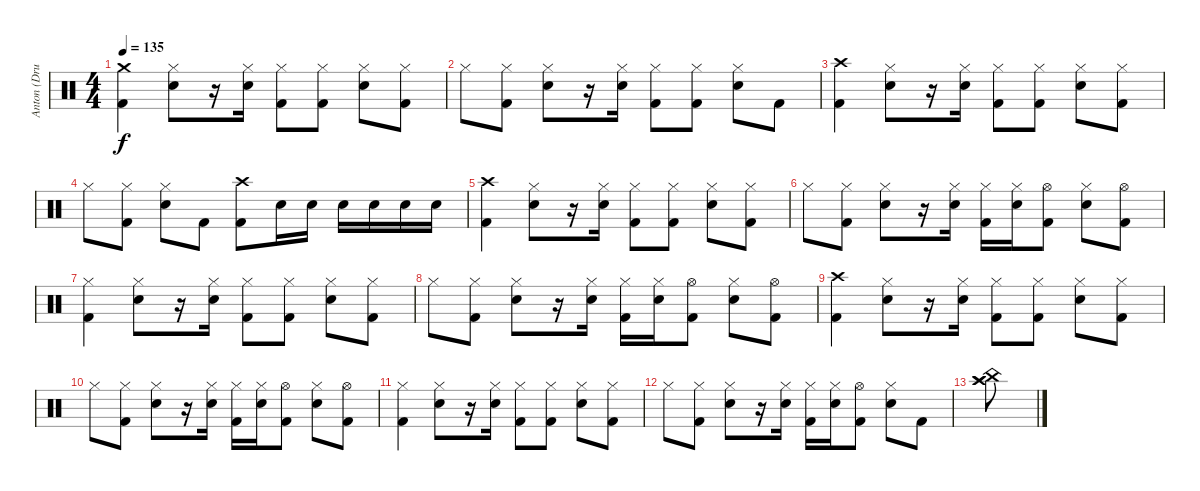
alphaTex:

\track ("Anton (Drum)" "Anton (Dru") {instrument percussion}
\staff {score}
\articulation defaults
\ts (4 4)
\tempo 135
\clef neutral
\ks c
("Kick (hit) 2" "Crash medium (hit)").4{dy f} ("Snare (hit) 2" "Hi-Hat (closed)").8 r.16 ("Snare (hit) 2" "Hi-Hat (closed)").16 ("Kick (hit) 2" "Hi-Hat (closed)").8 ("Kick (hit) 2" "Hi-Hat (closed)").8 ("Snare (hit) 2" "Hi-Hat (closed)").8 ("Kick (hit) 2" "Hi-Hat (closed)").8 |
"Hi-Hat (closed)".8 ("Kick (hit) 2" "Hi-Hat (closed)").8 ("Snare (hit) 2" "Hi-Hat (closed)").8 r.16 ("Snare (hit) 2" "Hi-Hat (closed)").16 ("Kick (hit) 2" "Hi-Hat (closed)").8 ("Kick (hit) 2" "Hi-Hat (closed)").8 ("Snare (hit) 2" "Hi-Hat (closed)").8 "Kick (hit) 2".8 |
("Kick (hit) 2" "Crash high (hit)").4 ("Snare (hit) 2" "Hi-Hat (closed)").8 r.16 ("Snare (hit) 2" "Hi-Hat (closed)").16 ("Kick (hit) 2" "Hi-Hat (closed)").8 ("Kick (hit) 2" "Hi-Hat (closed)").8 ("Snare (hit) 2" "Hi-Hat (closed)").8 ("Kick (hit) 2" "Hi-Hat (closed)").8 |
"Hi-Hat (closed)".8 ("Kick (hit) 2" "Hi-Hat (closed)").8 ("Snare (hit) 2" "Hi-Hat (closed)").8 "Kick (hit) 2".8 ("Kick (hit) 2" "Crash high (hit)").8 "Snare (hit) 2".16 "Snare (hit) 2".16 "Snare (hit) 2".16 "Snare (hit) 2".16 "Snare (hit) 2".16 "Snare (hit) 2".16 |
("Kick (hit) 2" "Crash high (hit)").4 ("Snare (hit) 2" "Hi-Hat (closed)").8 r.16 ("Snare (hit) 2" "Hi-Hat (closed)").16 ("Kick (hit) 2" "Hi-Hat (closed)").8 ("Kick (hit) 2" "Hi-Hat (closed)").8 ("Snare (hit) 2" "Hi-Hat (closed)").8 ("Kick (hit) 2" "Hi-Hat (closed)").8 |
"Hi-Hat (closed)".8 ("Kick (hit) 2" "Hi-Hat (closed)").8 ("Snare (hit) 2" "Hi-Hat (closed)").8 r.16 ("Snare (hit) 2" "Hi-Hat (closed)").16 ("Kick (hit) 2" "Hi-Hat (closed)").16 ("Snare (hit) 2" "Hi-Hat (closed)").16 ("Kick (hit) 2" "Hi-Hat (open)").8 ("Snare (hit) 2" "Hi-Hat (closed)").8 ("Kick (hit) 2" "Hi-Hat (open)").8 |
("Kick (hit) 2" "Hi-Hat (closed)").4 ("Snare (hit) 2" "Hi-Hat (closed)").8 r.16 ("Snare (hit) 2" "Hi-Hat (closed)").16 ("Kick (hit) 2" "Hi-Hat (closed)").8 ("Kick (hit) 2" "Hi-Hat (closed)").8 ("Snare (hit) 2" "Hi-Hat (closed)").8 ("Kick (hit) 2" "Hi-Hat (closed)").8 |
"Hi-Hat (closed)".8 ("Kick (hit) 2" "Hi-Hat (closed)").8 ("Snare (hit) 2" "Hi-Hat (closed)").8 r.16 ("Snare (hit) 2" "Hi-Hat (closed)").16 ("Kick (hit) 2" "Hi-Hat (closed)").16 ("Snare (hit) 2" "Hi-Hat (closed)").16 ("Kick (hit) 2" "Hi-Hat (open)").8 ("Snare (hit) 2" "Hi-Hat (closed)").8 ("Kick (hit) 2" "Hi-Hat (open)").8 |
("Kick (hit) 2" "Crash high (hit)").4 ("Snare (hit) 2" "Hi-Hat (closed)").8 r.16 ("Snare (hit) 2" "Hi-Hat (closed)").16 ("Kick (hit) 2" "Hi-Hat (closed)").8 ("Kick (hit) 2" "Hi-Hat (closed)").8 ("Snare (hit) 2" "Hi-Hat (closed)").8 ("Kick (hit) 2" "Hi-Hat (closed)").8 |
"Hi-Hat (closed)".8 ("Kick (hit) 2" "Hi-Hat (closed)").8 ("Snare (hit) 2" "Hi-Hat (closed)").8 r.16 ("Snare (hit) 2" "Hi-Hat (closed)").16 ("Kick (hit) 2" "Hi-Hat (closed)").16 ("Snare (hit) 2" "Hi-Hat (closed)").16 ("Kick (hit) 2" "Hi-Hat (open)").8 ("Snare (hit) 2" "Hi-Hat (closed)").8 ("Kick (hit) 2" "Hi-Hat (open)").8 |
("Kick (hit) 2" "Hi-Hat (closed)").4 ("Snare (hit) 2" "Hi-Hat (closed)").8 r.16 ("Snare (hit) 2" "Hi-Hat (closed)").16 ("Kick (hit) 2" "Hi-Hat (closed)").8 ("Kick (hit) 2" "Hi-Hat (closed)").8 ("Snare (hit) 2" "Hi-Hat (closed)").8 ("Kick (hit) 2" "Hi-Hat (closed)").8 |
"Hi-Hat (closed)".8 ("Kick (hit) 2" "Hi-Hat (closed)").8 ("Snare (hit) 2" "Hi-Hat (closed)").8 r.16 ("Snare (hit) 2" "Hi-Hat (closed)").16 ("Kick (hit) 2" "Hi-Hat (closed)").16 ("Snare (hit) 2" "Hi-Hat (closed)").16 ("Kick (hit) 2" "Hi-Hat (open)").8 ("Snare (hit) 2" "Hi-Hat (closed)").8 "Kick (hit) 2".8 |
("Crash high (hit)" "Crash high (hit)" "China (hit)").8
